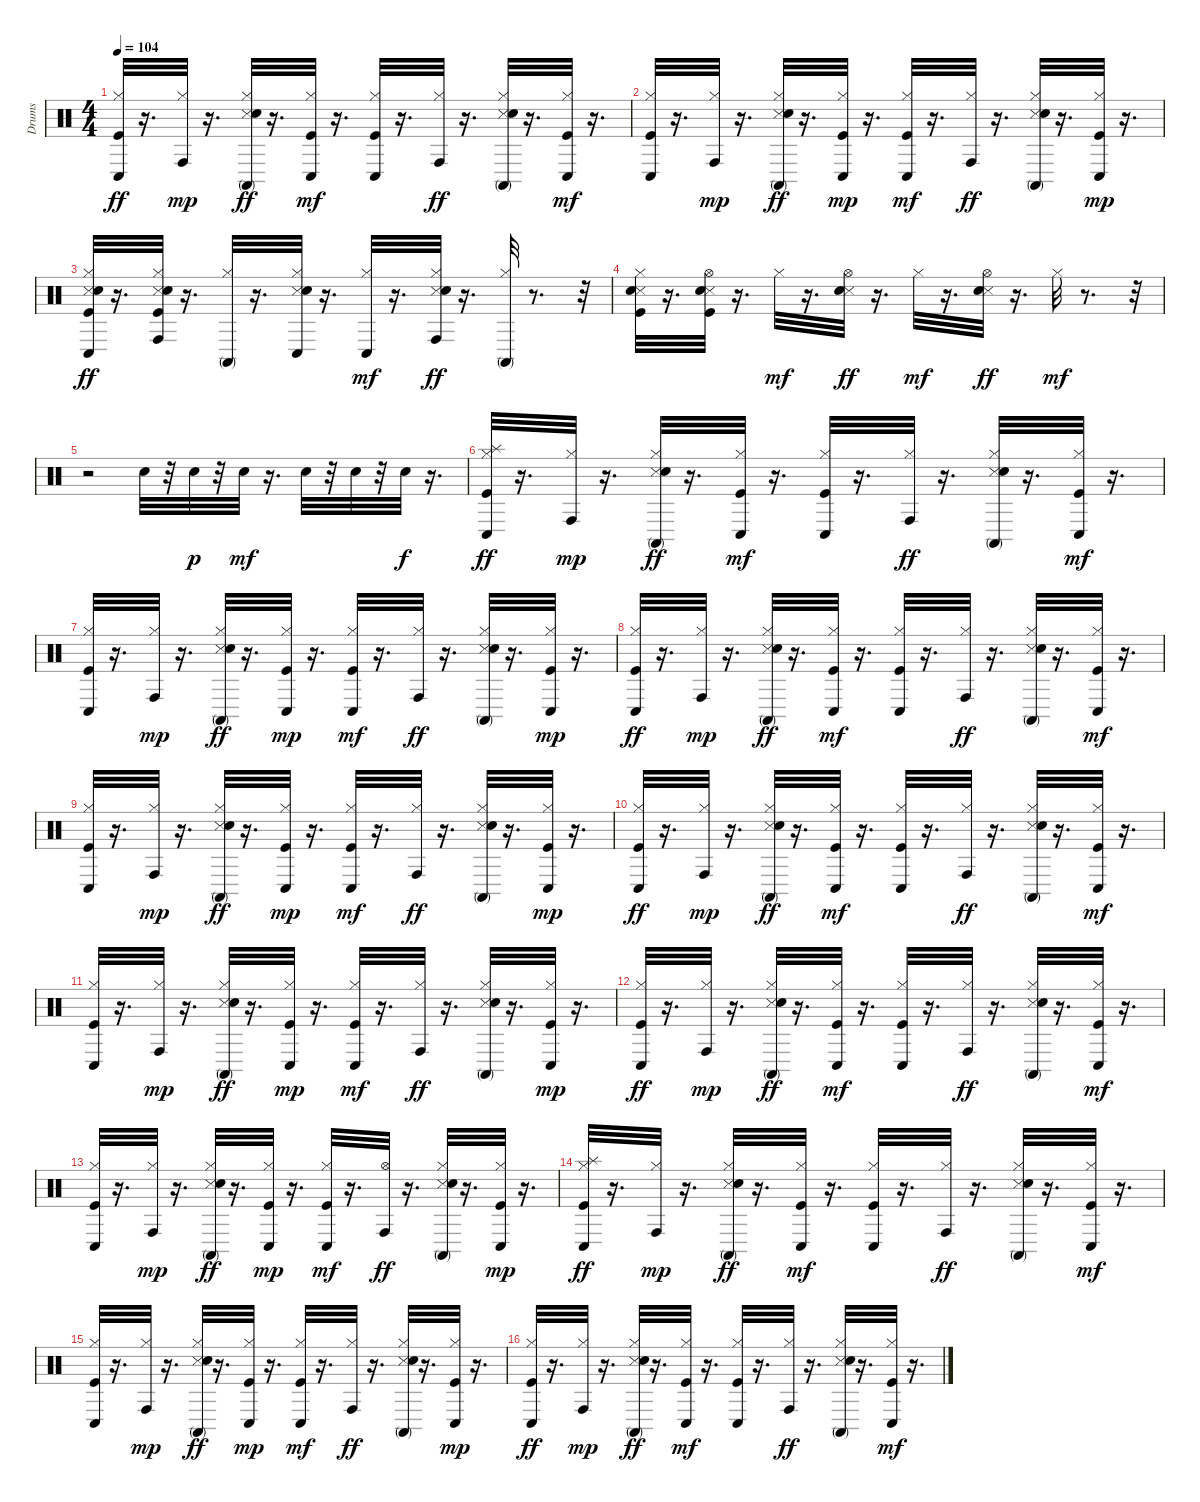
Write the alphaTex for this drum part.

\track ("Drums" "Drums") {instrument percussion}
\staff {score}
\articulation defaults
\ts (4 4)
\tempo 104
\clef neutral
\ks c
("Kick (hit)" "Hi-Hat (closed)" "Conga low (hit)").32{dy ff} r.16{d} ("Hi-Hat (closed)" "Conga high (hit)").32{dy mp} r.16{d} ("Snare (side stick) 3" "Hi-Hat (closed)" "Conga high (mute)" "Snare (hit) 2").32{dy ff} r.16{d} ("Kick (hit)" "Hi-Hat (closed)" "Conga low (hit)").32{dy mf} r.16{d} ("Kick (hit)" "Hi-Hat (closed)" "Conga low (hit)").32 r.16{d} ("Hi-Hat (closed)" "Conga high (hit)").32{dy ff} r.16{d} ("Snare (side stick) 3" "Hi-Hat (closed)" "Conga high (mute)" "Snare (hit) 2").32 r.16{d} ("Kick (hit)" "Hi-Hat (closed)" "Conga low (hit)").32{dy mf} r.16{d} |
("Kick (hit)" "Hi-Hat (closed)" "Conga low (hit)").32 r.16{d} ("Hi-Hat (closed)" "Conga high (hit)").32{dy mp} r.16{d} ("Snare (side stick) 3" "Hi-Hat (closed)" "Conga high (mute)" "Snare (hit) 2").32{dy ff} r.16{d} ("Kick (hit)" "Hi-Hat (closed)" "Conga low (hit)").32{dy mp} r.16{d} ("Kick (hit)" "Hi-Hat (closed)" "Conga low (hit)").32{dy mf} r.16{d} ("Hi-Hat (closed)" "Conga high (hit)").32{dy ff} r.16{d} ("Snare (side stick) 3" "Hi-Hat (closed)" "Conga high (mute)" "Snare (hit) 2").32 r.16{d} ("Kick (hit)" "Hi-Hat (closed)" "Conga low (hit)").32{dy mp} r.16{d} |
("Snare (side stick) 3" "Kick (hit)" "Hi-Hat (closed)" "Conga low (hit)" "Snare (hit) 2").32{dy ff} r.16{d} ("Snare (side stick) 3" "Kick (hit)" "Hi-Hat (closed)" "Conga high (hit)" "Snare (hit) 2").32 r.16{d} ("Hi-Hat (closed)" "Conga high (mute)").32 r.16{d} ("Snare (side stick) 3" "Hi-Hat (closed)" "Conga low (hit)" "Snare (hit) 2").32 r.16{d} ("Hi-Hat (closed)" "Conga low (hit)").32{dy mf} r.16{d} ("Snare (side stick) 3" "Hi-Hat (closed)" "Conga high (hit)" "Snare (hit) 2").32{dy ff} r.16{d} ("Hi-Hat (closed)" "Conga high (mute)").32 r.8{d} r.32 |
("Snare (side stick) 3" "Kick (hit)" "Hi-Hat (closed)" "Snare (hit) 2").32 r.16{d} ("Hi-Hat (open)" "Snare (side stick) 3" "Kick (hit)" "Snare (hit) 2").32 r.16{d} "Hi-Hat (closed)".32{dy mf} r.16{d} ("Hi-Hat (open)" "Snare (side stick) 3" "Snare (hit) 2").32{dy ff} r.16{d} "Hi-Hat (closed)".32{dy mf} r.16{d} ("Hi-Hat (open)" "Snare (side stick) 3" "Snare (hit) 2").32{dy ff} r.16{d} "Hi-Hat (closed)".32{dy mf} r.8{d} r.32 |
r.2 "Snare (hit) 2".32 r.32 "Snare (hit) 2".32{dy p} r.32 "Snare (hit) 2".32{dy mf} r.16{d} "Snare (hit) 2".32 r.32 "Snare (hit) 2".32 r.32 "Snare (hit) 2".32{dy f} r.16{d} |
("Splash (hit)" "Kick (hit)" "Hi-Hat (closed)" "Conga low (hit)").32{dy ff} r.16{d} ("Hi-Hat (closed)" "Conga high (hit)").32{dy mp} r.16{d} ("Snare (side stick) 3" "Hi-Hat (closed)" "Conga high (mute)" "Snare (hit) 2").32{dy ff} r.16{d} ("Kick (hit)" "Hi-Hat (closed)" "Conga low (hit)").32{dy mf} r.16{d} ("Kick (hit)" "Hi-Hat (closed)" "Conga low (hit)").32 r.16{d} ("Hi-Hat (closed)" "Conga high (hit)").32{dy ff} r.16{d} ("Snare (side stick) 3" "Hi-Hat (closed)" "Conga high (mute)" "Snare (hit) 2").32 r.16{d} ("Kick (hit)" "Hi-Hat (closed)" "Conga low (hit)").32{dy mf} r.16{d} |
("Kick (hit)" "Hi-Hat (closed)" "Conga low (hit)").32 r.16{d} ("Hi-Hat (closed)" "Conga high (hit)").32{dy mp} r.16{d} ("Snare (side stick) 3" "Hi-Hat (closed)" "Conga high (mute)" "Snare (hit) 2").32{dy ff} r.16{d} ("Kick (hit)" "Hi-Hat (closed)" "Conga low (hit)").32{dy mp} r.16{d} ("Kick (hit)" "Hi-Hat (closed)" "Conga low (hit)").32{dy mf} r.16{d} ("Hi-Hat (closed)" "Conga high (hit)").32{dy ff} r.16{d} ("Snare (side stick) 3" "Hi-Hat (closed)" "Conga high (mute)" "Snare (hit) 2").32 r.16{d} ("Kick (hit)" "Hi-Hat (closed)" "Conga low (hit)").32{dy mp} r.16{d} |
("Kick (hit)" "Hi-Hat (closed)" "Conga low (hit)").32{dy ff} r.16{d} ("Hi-Hat (closed)" "Conga high (hit)").32{dy mp} r.16{d} ("Snare (side stick) 3" "Hi-Hat (closed)" "Conga high (mute)" "Snare (hit) 2").32{dy ff} r.16{d} ("Kick (hit)" "Hi-Hat (closed)" "Conga low (hit)").32{dy mf} r.16{d} ("Kick (hit)" "Hi-Hat (closed)" "Conga low (hit)").32 r.16{d} ("Hi-Hat (closed)" "Conga high (hit)").32{dy ff} r.16{d} ("Snare (side stick) 3" "Hi-Hat (closed)" "Conga high (mute)" "Snare (hit) 2").32 r.16{d} ("Kick (hit)" "Hi-Hat (closed)" "Conga low (hit)").32{dy mf} r.16{d} |
("Kick (hit)" "Hi-Hat (closed)" "Conga low (hit)").32 r.16{d} ("Hi-Hat (closed)" "Conga high (hit)").32{dy mp} r.16{d} ("Snare (side stick) 3" "Hi-Hat (closed)" "Conga high (mute)" "Snare (hit) 2").32{dy ff} r.16{d} ("Kick (hit)" "Hi-Hat (closed)" "Conga low (hit)").32{dy mp} r.16{d} ("Kick (hit)" "Hi-Hat (closed)" "Conga low (hit)").32{dy mf} r.16{d} ("Hi-Hat (closed)" "Conga high (hit)").32{dy ff} r.16{d} ("Snare (side stick) 3" "Hi-Hat (closed)" "Conga high (mute)" "Snare (hit) 2").32 r.16{d} ("Kick (hit)" "Hi-Hat (closed)" "Conga low (hit)").32{dy mp} r.16{d} |
("Kick (hit)" "Hi-Hat (closed)" "Conga low (hit)").32{dy ff} r.16{d} ("Hi-Hat (closed)" "Conga high (hit)").32{dy mp} r.16{d} ("Snare (side stick) 3" "Hi-Hat (closed)" "Conga high (mute)" "Snare (hit) 2").32{dy ff} r.16{d} ("Kick (hit)" "Hi-Hat (closed)" "Conga low (hit)").32{dy mf} r.16{d} ("Kick (hit)" "Hi-Hat (closed)" "Conga low (hit)").32 r.16{d} ("Hi-Hat (closed)" "Conga high (hit)").32{dy ff} r.16{d} ("Snare (side stick) 3" "Hi-Hat (closed)" "Conga high (mute)" "Snare (hit) 2").32 r.16{d} ("Kick (hit)" "Hi-Hat (closed)" "Conga low (hit)").32{dy mf} r.16{d} |
("Kick (hit)" "Hi-Hat (closed)" "Conga low (hit)").32 r.16{d} ("Hi-Hat (closed)" "Conga high (hit)").32{dy mp} r.16{d} ("Snare (side stick) 3" "Hi-Hat (closed)" "Conga high (mute)" "Snare (hit) 2").32{dy ff} r.16{d} ("Kick (hit)" "Hi-Hat (closed)" "Conga low (hit)").32{dy mp} r.16{d} ("Kick (hit)" "Hi-Hat (closed)" "Conga low (hit)").32{dy mf} r.16{d} ("Hi-Hat (closed)" "Conga high (hit)").32{dy ff} r.16{d} ("Snare (side stick) 3" "Hi-Hat (closed)" "Conga high (mute)" "Snare (hit) 2").32 r.16{d} ("Kick (hit)" "Hi-Hat (closed)" "Conga low (hit)").32{dy mp} r.16{d} |
("Kick (hit)" "Hi-Hat (closed)" "Conga low (hit)").32{dy ff} r.16{d} ("Hi-Hat (closed)" "Conga high (hit)").32{dy mp} r.16{d} ("Snare (side stick) 3" "Hi-Hat (closed)" "Conga high (mute)" "Snare (hit) 2").32{dy ff} r.16{d} ("Kick (hit)" "Hi-Hat (closed)" "Conga low (hit)").32{dy mf} r.16{d} ("Kick (hit)" "Hi-Hat (closed)" "Conga low (hit)").32 r.16{d} ("Hi-Hat (closed)" "Conga high (hit)").32{dy ff} r.16{d} ("Snare (side stick) 3" "Hi-Hat (closed)" "Conga high (mute)" "Snare (hit) 2").32 r.16{d} ("Kick (hit)" "Hi-Hat (closed)" "Conga low (hit)").32{dy mf} r.16{d} |
("Kick (hit)" "Hi-Hat (closed)" "Conga low (hit)").32 r.16{d} ("Hi-Hat (closed)" "Conga high (hit)").32{dy mp} r.16{d} ("Snare (side stick) 3" "Hi-Hat (closed)" "Conga high (mute)" "Snare (hit) 2").32{dy ff} r.16{d} ("Kick (hit)" "Hi-Hat (closed)" "Conga low (hit)").32{dy mp} r.16{d} ("Kick (hit)" "Hi-Hat (closed)" "Conga low (hit)").32{dy mf} r.16{d} ("Hi-Hat (open)" "Conga high (hit)").32{dy ff} r.16{d} ("Snare (side stick) 3" "Hi-Hat (closed)" "Conga high (mute)" "Snare (hit) 2").32 r.16{d} ("Kick (hit)" "Hi-Hat (closed)" "Conga low (hit)").32{dy mp} r.16{d} |
("Splash (hit)" "Kick (hit)" "Hi-Hat (closed)" "Conga low (hit)").32{dy ff} r.16{d} ("Hi-Hat (closed)" "Conga high (hit)").32{dy mp} r.16{d} ("Snare (side stick) 3" "Hi-Hat (closed)" "Conga high (mute)" "Snare (hit) 2").32{dy ff} r.16{d} ("Kick (hit)" "Hi-Hat (closed)" "Conga low (hit)").32{dy mf} r.16{d} ("Kick (hit)" "Hi-Hat (closed)" "Conga low (hit)").32 r.16{d} ("Hi-Hat (closed)" "Conga high (hit)").32{dy ff} r.16{d} ("Snare (side stick) 3" "Hi-Hat (closed)" "Conga high (mute)" "Snare (hit) 2").32 r.16{d} ("Kick (hit)" "Hi-Hat (closed)" "Conga low (hit)").32{dy mf} r.16{d} |
("Kick (hit)" "Hi-Hat (closed)" "Conga low (hit)").32 r.16{d} ("Hi-Hat (closed)" "Conga high (hit)").32{dy mp} r.16{d} ("Snare (side stick) 3" "Hi-Hat (closed)" "Conga high (mute)" "Snare (hit) 2").32{dy ff} r.16{d} ("Kick (hit)" "Hi-Hat (closed)" "Conga low (hit)").32{dy mp} r.16{d} ("Kick (hit)" "Hi-Hat (closed)" "Conga low (hit)").32{dy mf} r.16{d} ("Hi-Hat (closed)" "Conga high (hit)").32{dy ff} r.16{d} ("Snare (side stick) 3" "Hi-Hat (closed)" "Conga high (mute)" "Snare (hit) 2").32 r.16{d} ("Kick (hit)" "Hi-Hat (closed)" "Conga low (hit)").32{dy mp} r.16{d} |
("Kick (hit)" "Hi-Hat (closed)" "Conga low (hit)").32{dy ff} r.16{d} ("Hi-Hat (closed)" "Conga high (hit)").32{dy mp} r.16{d} ("Snare (side stick) 3" "Hi-Hat (closed)" "Conga high (mute)" "Snare (hit) 2").32{dy ff} r.16{d} ("Kick (hit)" "Hi-Hat (closed)" "Conga low (hit)").32{dy mf} r.16{d} ("Kick (hit)" "Hi-Hat (closed)" "Conga low (hit)").32 r.16{d} ("Hi-Hat (closed)" "Conga high (hit)").32{dy ff} r.16{d} ("Snare (side stick) 3" "Hi-Hat (closed)" "Conga high (mute)" "Snare (hit) 2").32 r.16{d} ("Kick (hit)" "Hi-Hat (closed)" "Conga low (hit)").32{dy mf} r.16{d}
